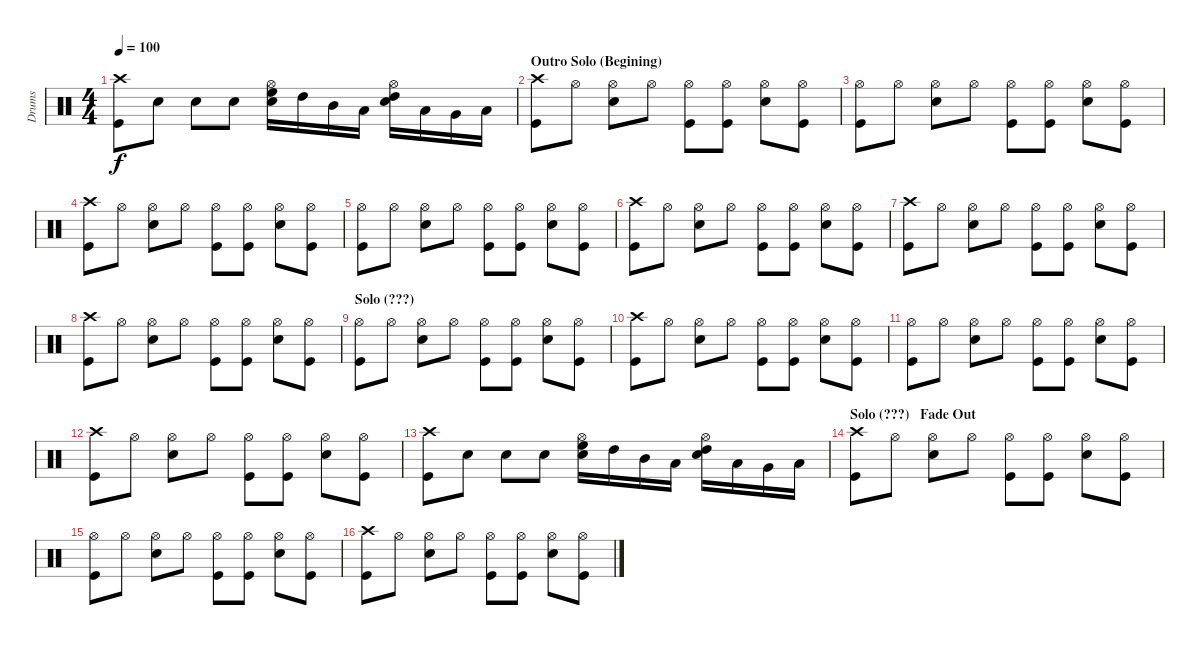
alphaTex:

\track ("Drums" "Drums") {instrument percussion}
\staff {score}
\articulation defaults
\ts (4 4)
\tempo 100
\clef neutral
\ks c
("Crash high (hit)" "Kick (hit)").8{dy f} "Snare (hit) 2".8 "Snare (hit) 2".8 "Snare (hit) 2".8 ("Hi-Hat (open)" "Snare (hit) 2" "High Floor Tom (hit)").16 "High Tom (hit)".16 "Mid Tom (hit)".16 "Low Tom (hit)".16 ("Hi-Hat (open)" "Snare (hit) 2" "High Tom (hit)").16 "Low Tom (hit)".16 "Very Low Tom (hit)".16 "Low Floor Tom (hit)".16 |
\section ("" "Outro Solo (Begining)")
("Crash high (hit)" "Kick (hit)").8 "Hi-Hat (open)".8 ("Hi-Hat (open)" "Snare (hit) 2").8 "Hi-Hat (open)".8 ("Hi-Hat (open)" "Kick (hit)").8 ("Hi-Hat (open)" "Kick (hit)").8 ("Hi-Hat (open)" "Snare (hit) 2").8 ("Hi-Hat (open)" "Kick (hit)").8 |
("Hi-Hat (open)" "Kick (hit)").8 "Hi-Hat (open)".8 ("Hi-Hat (open)" "Snare (hit) 2").8 "Hi-Hat (open)".8 ("Hi-Hat (open)" "Kick (hit)").8 ("Hi-Hat (open)" "Kick (hit)").8 ("Hi-Hat (open)" "Snare (hit) 2").8 ("Hi-Hat (open)" "Kick (hit)").8 |
("Crash high (hit)" "Kick (hit)").8 "Hi-Hat (open)".8 ("Hi-Hat (open)" "Snare (hit) 2").8 "Hi-Hat (open)".8 ("Hi-Hat (open)" "Kick (hit)").8 ("Hi-Hat (open)" "Kick (hit)").8 ("Hi-Hat (open)" "Snare (hit) 2").8 ("Hi-Hat (open)" "Kick (hit)").8 |
("Hi-Hat (open)" "Kick (hit)").8 "Hi-Hat (open)".8 ("Hi-Hat (open)" "Snare (hit) 2").8 "Hi-Hat (open)".8 ("Hi-Hat (open)" "Kick (hit)").8 ("Hi-Hat (open)" "Kick (hit)").8 ("Hi-Hat (open)" "Snare (hit) 2").8 ("Hi-Hat (open)" "Kick (hit)").8 |
("Crash high (hit)" "Kick (hit)").8 "Hi-Hat (open)".8 ("Hi-Hat (open)" "Snare (hit) 2").8 "Hi-Hat (open)".8 ("Hi-Hat (open)" "Kick (hit)").8 ("Hi-Hat (open)" "Kick (hit)").8 ("Hi-Hat (open)" "Snare (hit) 2").8 ("Hi-Hat (open)" "Kick (hit)").8 |
("Crash high (hit)" "Kick (hit)").8 "Hi-Hat (open)".8 ("Hi-Hat (open)" "Snare (hit) 2").8 "Hi-Hat (open)".8 ("Hi-Hat (open)" "Kick (hit)").8 ("Hi-Hat (open)" "Kick (hit)").8 ("Hi-Hat (open)" "Snare (hit) 2").8 ("Hi-Hat (open)" "Kick (hit)").8 |
("Crash high (hit)" "Kick (hit)").8 "Hi-Hat (open)".8 ("Hi-Hat (open)" "Snare (hit) 2").8 "Hi-Hat (open)".8 ("Hi-Hat (open)" "Kick (hit)").8 ("Hi-Hat (open)" "Kick (hit)").8 ("Hi-Hat (open)" "Snare (hit) 2").8 ("Hi-Hat (open)" "Kick (hit)").8 |
\section ("" "Solo (???)")
("Hi-Hat (open)" "Kick (hit)").8 "Hi-Hat (open)".8 ("Hi-Hat (open)" "Snare (hit) 2").8 "Hi-Hat (open)".8 ("Hi-Hat (open)" "Kick (hit)").8 ("Hi-Hat (open)" "Kick (hit)").8 ("Hi-Hat (open)" "Snare (hit) 2").8 ("Hi-Hat (open)" "Kick (hit)").8 |
("Crash high (hit)" "Kick (hit)").8 "Hi-Hat (open)".8 ("Hi-Hat (open)" "Snare (hit) 2").8 "Hi-Hat (open)".8 ("Hi-Hat (open)" "Kick (hit)").8 ("Hi-Hat (open)" "Kick (hit)").8 ("Hi-Hat (open)" "Snare (hit) 2").8 ("Hi-Hat (open)" "Kick (hit)").8 |
("Hi-Hat (open)" "Kick (hit)").8 "Hi-Hat (open)".8 ("Hi-Hat (open)" "Snare (hit) 2").8 "Hi-Hat (open)".8 ("Hi-Hat (open)" "Kick (hit)").8 ("Hi-Hat (open)" "Kick (hit)").8 ("Hi-Hat (open)" "Snare (hit) 2").8 ("Hi-Hat (open)" "Kick (hit)").8 |
("Crash high (hit)" "Kick (hit)").8 "Hi-Hat (open)".8 ("Hi-Hat (open)" "Snare (hit) 2").8 "Hi-Hat (open)".8 ("Hi-Hat (open)" "Kick (hit)").8 ("Hi-Hat (open)" "Kick (hit)").8 ("Hi-Hat (open)" "Snare (hit) 2").8 ("Hi-Hat (open)" "Kick (hit)").8 |
("Crash high (hit)" "Kick (hit)").8 "Snare (hit) 2".8 "Snare (hit) 2".8 "Snare (hit) 2".8 ("Hi-Hat (open)" "Snare (hit) 2" "High Floor Tom (hit)").16 "High Tom (hit)".16 "Mid Tom (hit)".16 "Low Tom (hit)".16 ("Hi-Hat (open)" "Snare (hit) 2" "High Tom (hit)").16 "Low Tom (hit)".16 "Very Low Tom (hit)".16 "Low Floor Tom (hit)".16 |
\section ("" "Solo (???)   Fade Out")
("Crash high (hit)" "Kick (hit)").8 "Hi-Hat (open)".8 ("Hi-Hat (open)" "Snare (hit) 2").8 "Hi-Hat (open)".8 ("Hi-Hat (open)" "Kick (hit)").8 ("Hi-Hat (open)" "Kick (hit)").8 ("Hi-Hat (open)" "Snare (hit) 2").8 ("Hi-Hat (open)" "Kick (hit)").8 |
("Hi-Hat (open)" "Kick (hit)").8 "Hi-Hat (open)".8 ("Hi-Hat (open)" "Snare (hit) 2").8 "Hi-Hat (open)".8 ("Hi-Hat (open)" "Kick (hit)").8 ("Hi-Hat (open)" "Kick (hit)").8 ("Hi-Hat (open)" "Snare (hit) 2").8 ("Hi-Hat (open)" "Kick (hit)").8 |
("Crash high (hit)" "Kick (hit)").8 "Hi-Hat (open)".8 ("Hi-Hat (open)" "Snare (hit) 2").8 "Hi-Hat (open)".8 ("Hi-Hat (open)" "Kick (hit)").8 ("Hi-Hat (open)" "Kick (hit)").8 ("Hi-Hat (open)" "Snare (hit) 2").8 ("Hi-Hat (open)" "Kick (hit)").8
